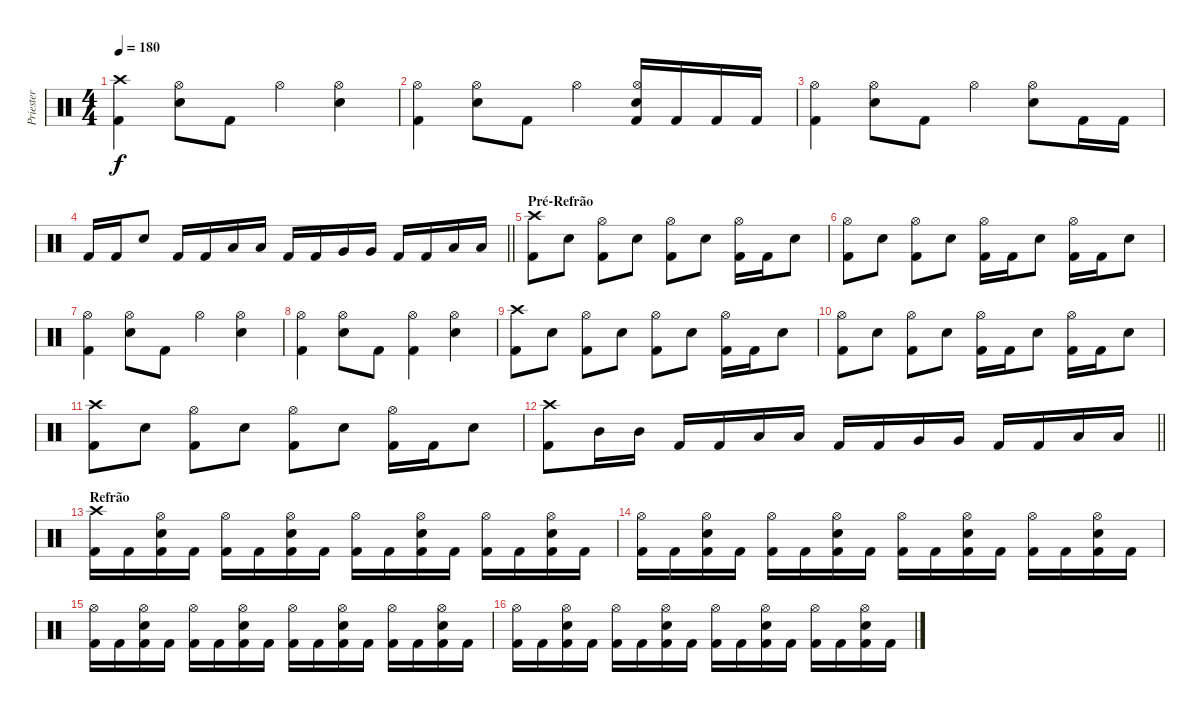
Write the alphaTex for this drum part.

\track ("Priester" "Priester") {instrument percussion}
\staff {score}
\articulation defaults
\ts (4 4)
\tempo 180
\clef neutral
\ks c
("Crash high (hit)" "Kick (hit) 2").4{dy f} ("Hi-Hat (open)" "Electric Snare (hit)").8 "Kick (hit) 2".8 "Hi-Hat (open)".4 ("Hi-Hat (open)" "Electric Snare (hit)").4 |
("Hi-Hat (open)" "Kick (hit) 2").4 ("Hi-Hat (open)" "Electric Snare (hit)").8 "Kick (hit) 2".8 "Hi-Hat (open)".4 ("Hi-Hat (open)" "Electric Snare (hit)" "Kick (hit) 2").16 "Kick (hit) 2".16 "Kick (hit) 2".16 "Kick (hit) 2".16 |
("Hi-Hat (open)" "Kick (hit) 2").4 ("Hi-Hat (open)" "Electric Snare (hit)").8 "Kick (hit) 2".8 "Hi-Hat (open)".4 ("Hi-Hat (open)" "Electric Snare (hit)").8 "Kick (hit) 2".16 "Kick (hit) 2".16 |
\barLineRight lightlight "Kick (hit) 2".16 "Kick (hit) 2".16 "Electric Snare (hit)".8 "Kick (hit) 2".16 "Kick (hit) 2".16 "Low Tom (hit)".16 "Low Tom (hit)".16 "Kick (hit) 2".16 "Kick (hit) 2".16 "Very Low Tom (hit)".16 "Very Low Tom (hit)".16 "Kick (hit) 2".16 "Kick (hit) 2".16 "Low Floor Tom (hit)".16 "Low Floor Tom (hit)".16
|
\section ("" "Pré-Refrão")
("Crash high (hit)" "Kick (hit) 2").8 "Electric Snare (hit)".8 ("Hi-Hat (open)" "Kick (hit) 2").8 "Electric Snare (hit)".8 ("Hi-Hat (open)" "Kick (hit) 2").8 "Electric Snare (hit)".8 ("Hi-Hat (open)" "Kick (hit) 2").16 "Kick (hit) 2".16 "Electric Snare (hit)".8 |
("Hi-Hat (open)" "Kick (hit) 2").8 "Electric Snare (hit)".8 ("Hi-Hat (open)" "Kick (hit) 2").8 "Electric Snare (hit)".8 ("Hi-Hat (open)" "Kick (hit) 2").16 "Kick (hit) 2".16 "Electric Snare (hit)".8 ("Hi-Hat (open)" "Kick (hit) 2").16 "Kick (hit) 2".16 "Electric Snare (hit)".8 |
("Hi-Hat (open)" "Kick (hit) 2").4 ("Hi-Hat (open)" "Electric Snare (hit)").8 "Kick (hit) 2".8 "Hi-Hat (open)".4 ("Hi-Hat (open)" "Electric Snare (hit)").4 |
("Hi-Hat (open)" "Kick (hit) 2").4 ("Hi-Hat (open)" "Electric Snare (hit)").8 "Kick (hit) 2".8 ("Hi-Hat (open)" "Kick (hit) 2").4 ("Hi-Hat (open)" "Electric Snare (hit)").4 |
("Crash high (hit)" "Kick (hit) 2").8 "Electric Snare (hit)".8 ("Hi-Hat (open)" "Kick (hit) 2").8 "Electric Snare (hit)".8 ("Hi-Hat (open)" "Kick (hit) 2").8 "Electric Snare (hit)".8 ("Hi-Hat (open)" "Kick (hit) 2").16 "Kick (hit) 2".16 "Electric Snare (hit)".8 |
("Hi-Hat (open)" "Kick (hit) 2").8 "Electric Snare (hit)".8 ("Hi-Hat (open)" "Kick (hit) 2").8 "Electric Snare (hit)".8 ("Hi-Hat (open)" "Kick (hit) 2").16 "Kick (hit) 2".16 "Electric Snare (hit)".8 ("Hi-Hat (open)" "Kick (hit) 2").16 "Kick (hit) 2".16 "Electric Snare (hit)".8 |
("Crash high (hit)" "Kick (hit) 2").8 "Electric Snare (hit)".8 ("Hi-Hat (open)" "Kick (hit) 2").8 "Electric Snare (hit)".8 ("Hi-Hat (open)" "Kick (hit) 2").8 "Electric Snare (hit)".8 ("Hi-Hat (open)" "Kick (hit) 2").16 "Kick (hit) 2".16 "Electric Snare (hit)".8 |
\barLineRight lightlight
("Crash high (hit)" "Kick (hit) 2").8 "Mid Tom (hit)".16 "Mid Tom (hit)".16 "Kick (hit) 2".16 "Kick (hit) 2".16 "Low Tom (hit)".16 "Low Tom (hit)".16 "Kick (hit) 2".16 "Kick (hit) 2".16 "Very Low Tom (hit)".16 "Very Low Tom (hit)".16 "Kick (hit) 2".16 "Kick (hit) 2".16 "Low Floor Tom (hit)".16 "Low Floor Tom (hit)".16 |
\section ("" "Refrão")
("Crash high (hit)" "Kick (hit) 2").16 "Kick (hit) 2".16 ("Hi-Hat (open)" "Electric Snare (hit)" "Kick (hit) 2").16 "Kick (hit) 2".16 ("Hi-Hat (open)" "Kick (hit) 2").16 "Kick (hit) 2".16 ("Hi-Hat (open)" "Electric Snare (hit)" "Kick (hit) 2").16 "Kick (hit) 2".16 ("Hi-Hat (open)" "Kick (hit) 2").16 "Kick (hit) 2".16 ("Hi-Hat (open)" "Electric Snare (hit)" "Kick (hit) 2").16 "Kick (hit) 2".16 ("Hi-Hat (open)" "Kick (hit) 2").16 "Kick (hit) 2".16 ("Hi-Hat (open)" "Electric Snare (hit)" "Kick (hit) 2").16 "Kick (hit) 2".16 |
("Hi-Hat (open)" "Kick (hit) 2").16 "Kick (hit) 2".16 ("Hi-Hat (open)" "Electric Snare (hit)" "Kick (hit) 2").16 "Kick (hit) 2".16 ("Hi-Hat (open)" "Kick (hit) 2").16 "Kick (hit) 2".16 ("Hi-Hat (open)" "Electric Snare (hit)" "Kick (hit) 2").16 "Kick (hit) 2".16 ("Hi-Hat (open)" "Kick (hit) 2").16 "Kick (hit) 2".16 ("Hi-Hat (open)" "Electric Snare (hit)" "Kick (hit) 2").16 "Kick (hit) 2".16 ("Hi-Hat (open)" "Kick (hit) 2").16 "Kick (hit) 2".16 ("Hi-Hat (open)" "Electric Snare (hit)" "Kick (hit) 2").16 "Kick (hit) 2".16 |
("Hi-Hat (open)" "Kick (hit) 2").16 "Kick (hit) 2".16 ("Hi-Hat (open)" "Electric Snare (hit)" "Kick (hit) 2").16 "Kick (hit) 2".16 ("Hi-Hat (open)" "Kick (hit) 2").16 "Kick (hit) 2".16 ("Hi-Hat (open)" "Electric Snare (hit)" "Kick (hit) 2").16 "Kick (hit) 2".16 ("Hi-Hat (open)" "Kick (hit) 2").16 "Kick (hit) 2".16 ("Hi-Hat (open)" "Electric Snare (hit)" "Kick (hit) 2").16 "Kick (hit) 2".16 ("Hi-Hat (open)" "Kick (hit) 2").16 "Kick (hit) 2".16 ("Hi-Hat (open)" "Electric Snare (hit)" "Kick (hit) 2").16 "Kick (hit) 2".16 |
("Hi-Hat (open)" "Kick (hit) 2").16 "Kick (hit) 2".16 ("Hi-Hat (open)" "Electric Snare (hit)" "Kick (hit) 2").16 "Kick (hit) 2".16 ("Hi-Hat (open)" "Kick (hit) 2").16 "Kick (hit) 2".16 ("Hi-Hat (open)" "Electric Snare (hit)" "Kick (hit) 2").16 "Kick (hit) 2".16 ("Hi-Hat (open)" "Kick (hit) 2").16 "Kick (hit) 2".16 ("Hi-Hat (open)" "Electric Snare (hit)" "Kick (hit) 2").16 "Kick (hit) 2".16 ("Hi-Hat (open)" "Kick (hit) 2").16 "Kick (hit) 2".16 ("Hi-Hat (open)" "Electric Snare (hit)" "Kick (hit) 2").16 "Kick (hit) 2".16
